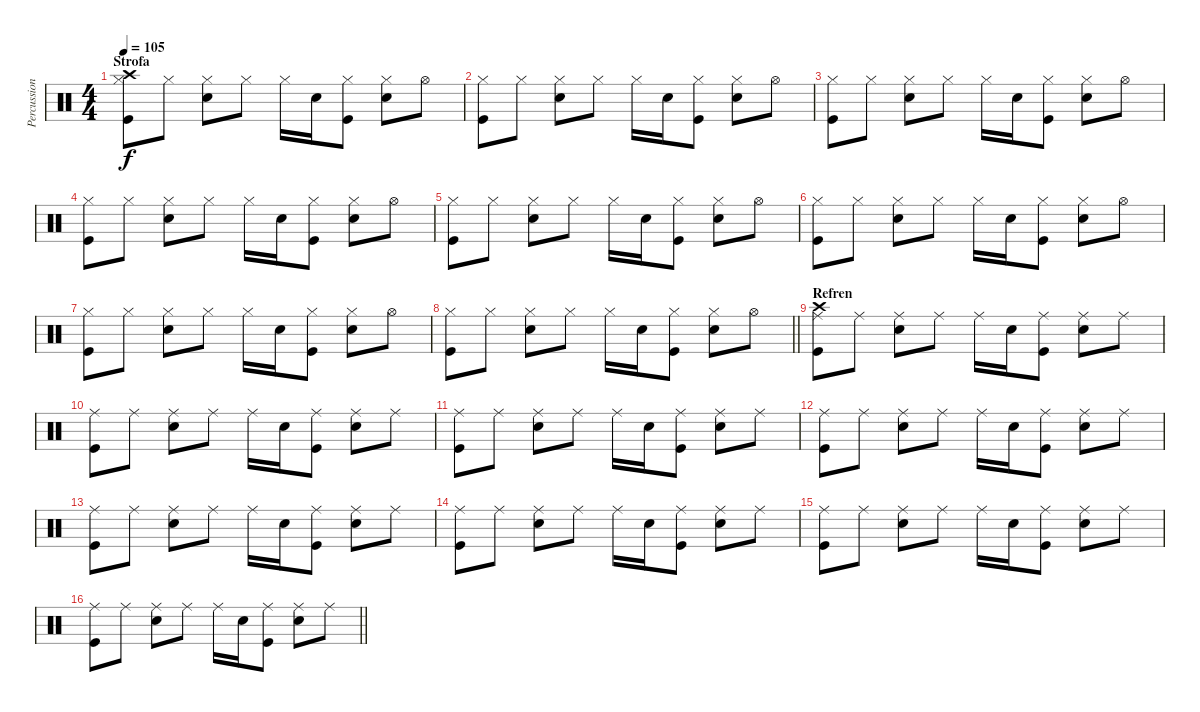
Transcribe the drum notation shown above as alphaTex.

\track ("Percussion" "Percussion") {instrument percussion}
\staff {score}
\articulation defaults
\ts (4 4)
\section ("" "Strofa")
\tempo 105
\clef neutral
\ks c
("Kick (hit)" "Hi-Hat (closed)" "Crash high (hit)").8{dy f} "Hi-Hat (closed)".8 ("Hi-Hat (closed)" "Snare (hit) 2").8 "Hi-Hat (closed)".8 "Hi-Hat (closed)".16 "Snare (hit) 2".16 ("Hi-Hat (closed)" "Kick (hit)").8 ("Hi-Hat (closed)" "Snare (hit) 2").8 "Hi-Hat (open)".8 |
("Kick (hit)" "Hi-Hat (closed)").8 "Hi-Hat (closed)".8 ("Hi-Hat (closed)" "Snare (hit) 2").8 "Hi-Hat (closed)".8 "Hi-Hat (closed)".16 "Snare (hit) 2".16 ("Hi-Hat (closed)" "Kick (hit)").8 ("Hi-Hat (closed)" "Snare (hit) 2").8 "Hi-Hat (open)".8 |
("Kick (hit)" "Hi-Hat (closed)").8 "Hi-Hat (closed)".8 ("Hi-Hat (closed)" "Snare (hit) 2").8 "Hi-Hat (closed)".8 "Hi-Hat (closed)".16 "Snare (hit) 2".16 ("Hi-Hat (closed)" "Kick (hit)").8 ("Hi-Hat (closed)" "Snare (hit) 2").8 "Hi-Hat (open)".8 |
("Kick (hit)" "Hi-Hat (closed)").8 "Hi-Hat (closed)".8 ("Hi-Hat (closed)" "Snare (hit) 2").8 "Hi-Hat (closed)".8 "Hi-Hat (closed)".16 "Snare (hit) 2".16 ("Hi-Hat (closed)" "Kick (hit)").8 ("Hi-Hat (closed)" "Snare (hit) 2").8 "Hi-Hat (open)".8 |
("Kick (hit)" "Hi-Hat (closed)").8 "Hi-Hat (closed)".8 ("Hi-Hat (closed)" "Snare (hit) 2").8 "Hi-Hat (closed)".8 "Hi-Hat (closed)".16 "Snare (hit) 2".16 ("Hi-Hat (closed)" "Kick (hit)").8 ("Hi-Hat (closed)" "Snare (hit) 2").8 "Hi-Hat (open)".8 |
("Kick (hit)" "Hi-Hat (closed)").8 "Hi-Hat (closed)".8 ("Hi-Hat (closed)" "Snare (hit) 2").8 "Hi-Hat (closed)".8 "Hi-Hat (closed)".16 "Snare (hit) 2".16 ("Hi-Hat (closed)" "Kick (hit)").8 ("Hi-Hat (closed)" "Snare (hit) 2").8 "Hi-Hat (open)".8 |
("Kick (hit)" "Hi-Hat (closed)").8 "Hi-Hat (closed)".8 ("Hi-Hat (closed)" "Snare (hit) 2").8 "Hi-Hat (closed)".8 "Hi-Hat (closed)".16 "Snare (hit) 2".16 ("Hi-Hat (closed)" "Kick (hit)").8 ("Hi-Hat (closed)" "Snare (hit) 2").8 "Hi-Hat (open)".8 |
\barLineRight lightlight
("Kick (hit)" "Hi-Hat (closed)").8 "Hi-Hat (closed)".8 ("Hi-Hat (closed)" "Snare (hit) 2").8 "Hi-Hat (closed)".8 "Hi-Hat (closed)".16 "Snare (hit) 2".16 ("Hi-Hat (closed)" "Kick (hit)").8 ("Hi-Hat (closed)" "Snare (hit) 2").8 "Hi-Hat (open)".8 |
\section ("" "Refren")
("Kick (hit)" "Crash high (hit)" "Ride (middle)").8 "Ride (middle)".8 ("Snare (hit) 2" "Ride (middle)").8 "Ride (middle)".8 "Ride (middle)".16 "Snare (hit) 2".16 ("Kick (hit)" "Ride (middle)").8 ("Snare (hit) 2" "Ride (middle)").8 "Ride (middle)".8 |
("Kick (hit)" "Ride (middle)").8 "Ride (middle)".8 ("Snare (hit) 2" "Ride (middle)").8 "Ride (middle)".8 "Ride (middle)".16 "Snare (hit) 2".16 ("Kick (hit)" "Ride (middle)").8 ("Snare (hit) 2" "Ride (middle)").8 "Ride (middle)".8 |
("Kick (hit)" "Ride (middle)").8 "Ride (middle)".8 ("Snare (hit) 2" "Ride (middle)").8 "Ride (middle)".8 "Ride (middle)".16 "Snare (hit) 2".16 ("Kick (hit)" "Ride (middle)").8 ("Snare (hit) 2" "Ride (middle)").8 "Ride (middle)".8 |
("Kick (hit)" "Ride (middle)").8 "Ride (middle)".8 ("Snare (hit) 2" "Ride (middle)").8 "Ride (middle)".8 "Ride (middle)".16 "Snare (hit) 2".16 ("Kick (hit)" "Ride (middle)").8 ("Snare (hit) 2" "Ride (middle)").8 "Ride (middle)".8 |
("Kick (hit)" "Ride (middle)").8 "Ride (middle)".8 ("Snare (hit) 2" "Ride (middle)").8 "Ride (middle)".8 "Ride (middle)".16 "Snare (hit) 2".16 ("Kick (hit)" "Ride (middle)").8 ("Snare (hit) 2" "Ride (middle)").8 "Ride (middle)".8 |
("Kick (hit)" "Ride (middle)").8 "Ride (middle)".8 ("Snare (hit) 2" "Ride (middle)").8 "Ride (middle)".8 "Ride (middle)".16 "Snare (hit) 2".16 ("Kick (hit)" "Ride (middle)").8 ("Snare (hit) 2" "Ride (middle)").8 "Ride (middle)".8 |
("Kick (hit)" "Ride (middle)").8 "Ride (middle)".8 ("Snare (hit) 2" "Ride (middle)").8 "Ride (middle)".8 "Ride (middle)".16 "Snare (hit) 2".16 ("Kick (hit)" "Ride (middle)").8 ("Snare (hit) 2" "Ride (middle)").8 "Ride (middle)".8 |
\barLineRight lightlight
("Kick (hit)" "Ride (middle)").8 "Ride (middle)".8 ("Snare (hit) 2" "Ride (middle)").8 "Ride (middle)".8 "Ride (middle)".16 "Snare (hit) 2".16 ("Kick (hit)" "Ride (middle)").8 ("Snare (hit) 2" "Ride (middle)").8 "Ride (middle)".8
